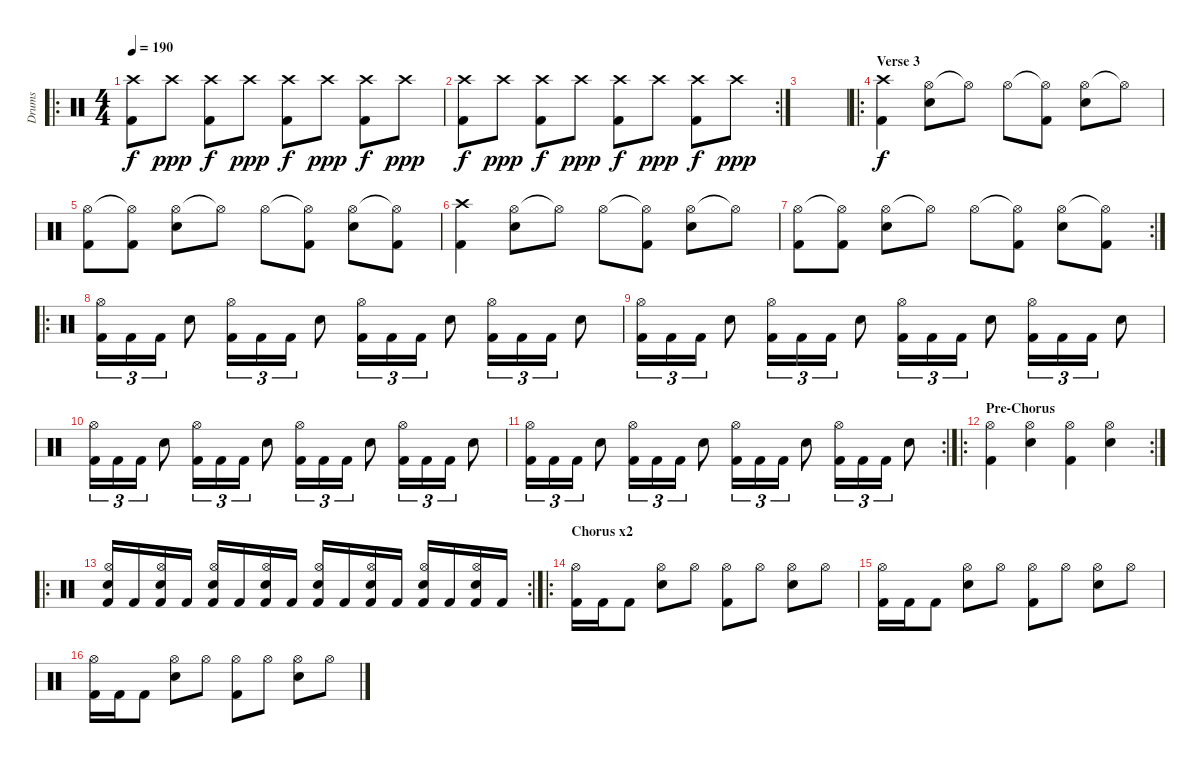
\track ("Drums" "Drums") {instrument percussion}
\staff {score}
\articulation defaults
\ro
\ts (4 4)
\tempo 190
\clef neutral
\ks c
("Crash high (hit)" "Kick (hit) 2").8{dy f} "Crash high (hit)".8{dy ppp} ("Crash high (hit)" "Kick (hit) 2").8{dy f} "Crash high (hit)".8{dy ppp} ("Crash high (hit)" "Kick (hit) 2").8{dy f} "Crash high (hit)".8{dy ppp} ("Crash high (hit)" "Kick (hit) 2").8{dy f} "Crash high (hit)".8{dy ppp} |
\rc 2
("Crash high (hit)" "Kick (hit) 2").8{dy f} "Crash high (hit)".8{dy ppp} ("Crash high (hit)" "Kick (hit) 2").8{dy f} "Crash high (hit)".8{dy ppp} ("Crash high (hit)" "Kick (hit) 2").8{dy f} "Crash high (hit)".8{dy ppp} ("Crash high (hit)" "Kick (hit) 2").8{dy f} "Crash high (hit)".8{dy ppp} |
|
\ro
\section ("" "Verse 3")
("Crash high (hit)" "Kick (hit) 2").4{dy f} ("Hi-Hat (open)" "Electric Snare (hit)").8 "Hi-Hat (open)"{t}.8 "Hi-Hat (open)".8 ("Hi-Hat (open)"{t} "Kick (hit) 2").8 ("Hi-Hat (open)" "Electric Snare (hit)").8 "Hi-Hat (open)"{t}.8 |
("Hi-Hat (open)" "Kick (hit) 2").8 ("Hi-Hat (open)"{t} "Kick (hit) 2").8 ("Hi-Hat (open)" "Electric Snare (hit)").8 "Hi-Hat (open)"{t}.8 "Hi-Hat (open)".8 ("Hi-Hat (open)"{t} "Kick (hit) 2").8 ("Hi-Hat (open)" "Electric Snare (hit)").8 ("Hi-Hat (open)"{t} "Kick (hit) 2").8 |
("Crash high (hit)" "Kick (hit) 2").4 ("Hi-Hat (open)" "Electric Snare (hit)").8 "Hi-Hat (open)"{t}.8 "Hi-Hat (open)".8 ("Hi-Hat (open)"{t} "Kick (hit) 2").8 ("Hi-Hat (open)" "Electric Snare (hit)").8 "Hi-Hat (open)"{t}.8 |
\rc 2
("Hi-Hat (open)" "Kick (hit) 2").8 ("Hi-Hat (open)"{t} "Kick (hit) 2").8 ("Hi-Hat (open)" "Electric Snare (hit)").8 "Hi-Hat (open)"{t}.8 "Hi-Hat (open)".8 ("Hi-Hat (open)"{t} "Kick (hit) 2").8 ("Hi-Hat (open)" "Electric Snare (hit)").8 ("Hi-Hat (open)"{t} "Kick (hit) 2").8 |
\ro
("Kick (hit) 2" "Hi-Hat (open)").16{tu (3 2)} "Kick (hit) 2".16{tu (3 2)} "Kick (hit) 2".16{tu (3 2)} "Electric Snare (hit)".8 ("Kick (hit) 2" "Hi-Hat (open)").16{tu (3 2)} "Kick (hit) 2".16{tu (3 2)} "Kick (hit) 2".16{tu (3 2)} "Electric Snare (hit)".8 ("Kick (hit) 2" "Hi-Hat (open)").16{tu (3 2)} "Kick (hit) 2".16{tu (3 2)} "Kick (hit) 2".16{tu (3 2)} "Electric Snare (hit)".8 ("Kick (hit) 2" "Hi-Hat (open)").16{tu (3 2)} "Kick (hit) 2".16{tu (3 2)} "Kick (hit) 2".16{tu (3 2)} "Electric Snare (hit)".8 |
("Kick (hit) 2" "Hi-Hat (open)").16{tu (3 2)} "Kick (hit) 2".16{tu (3 2)} "Kick (hit) 2".16{tu (3 2)} "Electric Snare (hit)".8 ("Kick (hit) 2" "Hi-Hat (open)").16{tu (3 2)} "Kick (hit) 2".16{tu (3 2)} "Kick (hit) 2".16{tu (3 2)} "Electric Snare (hit)".8 ("Kick (hit) 2" "Hi-Hat (open)").16{tu (3 2)} "Kick (hit) 2".16{tu (3 2)} "Kick (hit) 2".16{tu (3 2)} "Electric Snare (hit)".8 ("Kick (hit) 2" "Hi-Hat (open)").16{tu (3 2)} "Kick (hit) 2".16{tu (3 2)} "Kick (hit) 2".16{tu (3 2)} "Electric Snare (hit)".8 |
("Kick (hit) 2" "Hi-Hat (open)").16{tu (3 2)} "Kick (hit) 2".16{tu (3 2)} "Kick (hit) 2".16{tu (3 2)} "Electric Snare (hit)".8 ("Kick (hit) 2" "Hi-Hat (open)").16{tu (3 2)} "Kick (hit) 2".16{tu (3 2)} "Kick (hit) 2".16{tu (3 2)} "Electric Snare (hit)".8 ("Kick (hit) 2" "Hi-Hat (open)").16{tu (3 2)} "Kick (hit) 2".16{tu (3 2)} "Kick (hit) 2".16{tu (3 2)} "Electric Snare (hit)".8 ("Kick (hit) 2" "Hi-Hat (open)").16{tu (3 2)} "Kick (hit) 2".16{tu (3 2)} "Kick (hit) 2".16{tu (3 2)} "Electric Snare (hit)".8 |
\rc 2
("Kick (hit) 2" "Hi-Hat (open)").16{tu (3 2)} "Kick (hit) 2".16{tu (3 2)} "Kick (hit) 2".16{tu (3 2)} "Electric Snare (hit)".8 ("Kick (hit) 2" "Hi-Hat (open)").16{tu (3 2)} "Kick (hit) 2".16{tu (3 2)} "Kick (hit) 2".16{tu (3 2)} "Electric Snare (hit)".8 ("Kick (hit) 2" "Hi-Hat (open)").16{tu (3 2)} "Kick (hit) 2".16{tu (3 2)} "Kick (hit) 2".16{tu (3 2)} "Electric Snare (hit)".8 ("Kick (hit) 2" "Hi-Hat (open)").16{tu (3 2)} "Kick (hit) 2".16{tu (3 2)} "Kick (hit) 2".16{tu (3 2)} "Electric Snare (hit)".8 |
\ro
\rc 2
\section ("" "Pre-Chorus")
("Hi-Hat (open)" "Kick (hit) 2").4 ("Hi-Hat (open)" "Electric Snare (hit)").4 ("Hi-Hat (open)" "Kick (hit) 2").4 ("Hi-Hat (open)" "Electric Snare (hit)").4 |
\ro
\rc 2
("Kick (hit) 2" "Electric Snare (hit)" "Hi-Hat (open)").16 "Kick (hit) 2".16 ("Kick (hit) 2" "Electric Snare (hit)" "Hi-Hat (open)").16 "Kick (hit) 2".16 ("Kick (hit) 2" "Electric Snare (hit)" "Hi-Hat (open)").16 "Kick (hit) 2".16 ("Kick (hit) 2" "Electric Snare (hit)" "Hi-Hat (open)").16 "Kick (hit) 2".16 ("Kick (hit) 2" "Electric Snare (hit)" "Hi-Hat (open)").16 "Kick (hit) 2".16 ("Kick (hit) 2" "Electric Snare (hit)" "Hi-Hat (open)").16 "Kick (hit) 2".16 ("Kick (hit) 2" "Electric Snare (hit)" "Hi-Hat (open)").16 "Kick (hit) 2".16 ("Kick (hit) 2" "Electric Snare (hit)" "Hi-Hat (open)").16 "Kick (hit) 2".16 |
\ro
\section ("" "Chorus x2")
("Kick (hit) 2" "Hi-Hat (open)").16 "Kick (hit) 2".16 "Kick (hit) 2".8 ("Hi-Hat (open)" "Electric Snare (hit)").8 "Hi-Hat (open)".8 ("Hi-Hat (open)" "Kick (hit) 2").8 "Hi-Hat (open)".8 ("Hi-Hat (open)" "Electric Snare (hit)").8 "Hi-Hat (open)".8 |
("Kick (hit) 2" "Hi-Hat (open)").16 "Kick (hit) 2".16 "Kick (hit) 2".8 ("Hi-Hat (open)" "Electric Snare (hit)").8 "Hi-Hat (open)".8 ("Hi-Hat (open)" "Kick (hit) 2").8 "Hi-Hat (open)".8 ("Hi-Hat (open)" "Electric Snare (hit)").8 "Hi-Hat (open)".8 |
("Kick (hit) 2" "Hi-Hat (open)").16 "Kick (hit) 2".16 "Kick (hit) 2".8 ("Hi-Hat (open)" "Electric Snare (hit)").8 "Hi-Hat (open)".8 ("Hi-Hat (open)" "Kick (hit) 2").8 "Hi-Hat (open)".8 ("Hi-Hat (open)" "Electric Snare (hit)").8 "Hi-Hat (open)".8
